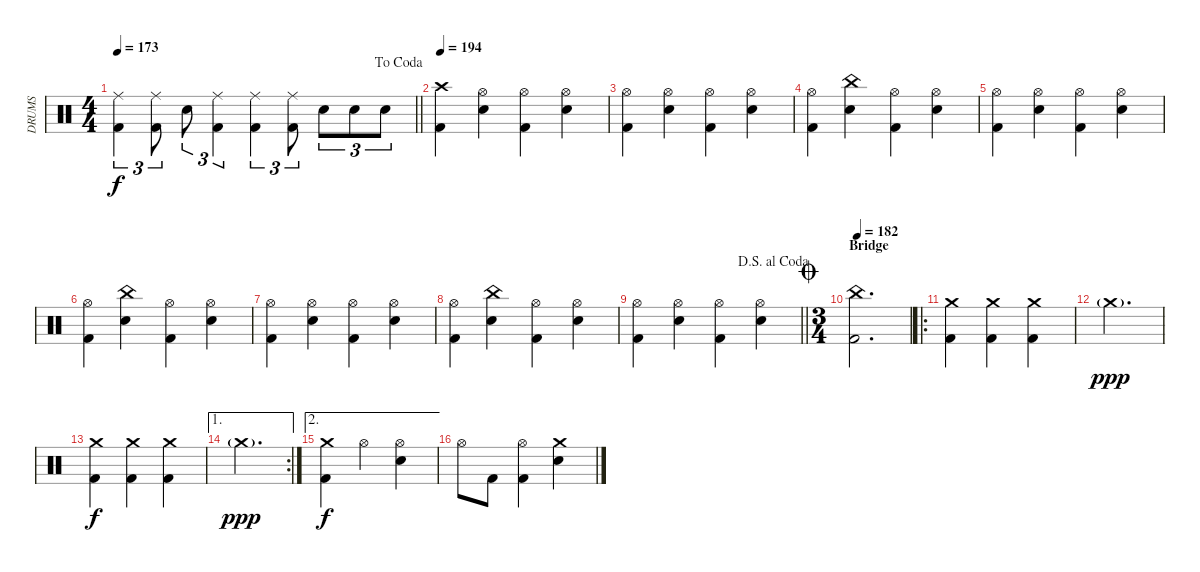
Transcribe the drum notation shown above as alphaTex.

\track ("DRUMS" "DRUMS") {instrument percussion}
\staff {score}
\articulation defaults
\ts (4 4)
\jump dacoda
\tempo 173
\clef neutral
\barLineRight lightlight
\ks c
("Ride (middle)" "Kick (hit) 2").4{tu (3 2) dy f} ("Ride (middle)" "Kick (hit) 2").8{tu (3 2)} "Snare (hit) 2".8{tu (3 2)} ("Ride (middle)" "Kick (hit) 2").4{tu (3 2)} ("Ride (middle)" "Kick (hit) 2").4{tu (3 2)} ("Ride (middle)" "Kick (hit) 2").8{tu (3 2)} "Snare (hit) 2".8{tu (3 2)} "Snare (hit) 2".8{tu (3 2)} "Snare (hit) 2".8{tu (3 2)} |
\tempo 194
("Crash high (hit)" "Kick (hit) 2").4 ("Hi-Hat (open)" "Snare (hit) 2").4 ("Hi-Hat (open)" "Kick (hit) 2").4 ("Hi-Hat (open)" "Snare (hit) 2").4 |
("Hi-Hat (open)" "Kick (hit) 2").4 ("Hi-Hat (open)" "Snare (hit) 2").4 ("Hi-Hat (open)" "Kick (hit) 2").4 ("Hi-Hat (open)" "Snare (hit) 2").4 |
("Hi-Hat (open)" "Kick (hit) 2").4 ("China (hit)" "Snare (hit) 2").4 ("Hi-Hat (open)" "Kick (hit) 2").4 ("Hi-Hat (open)" "Snare (hit) 2").4 |
("Hi-Hat (open)" "Kick (hit) 2").4 ("Hi-Hat (open)" "Snare (hit) 2").4 ("Hi-Hat (open)" "Kick (hit) 2").4 ("Hi-Hat (open)" "Snare (hit) 2").4 |
("Hi-Hat (open)" "Kick (hit) 2").4 ("China (hit)" "Snare (hit) 2").4 ("Hi-Hat (open)" "Kick (hit) 2").4 ("Hi-Hat (open)" "Snare (hit) 2").4 |
("Hi-Hat (open)" "Kick (hit) 2").4 ("Hi-Hat (open)" "Snare (hit) 2").4 ("Hi-Hat (open)" "Kick (hit) 2").4 ("Hi-Hat (open)" "Snare (hit) 2").4 |
("Hi-Hat (open)" "Kick (hit) 2").4 ("China (hit)" "Snare (hit) 2").4 ("Hi-Hat (open)" "Kick (hit) 2").4 ("Hi-Hat (open)" "Snare (hit) 2").4 |
\jump dalsegnoalcoda
\barLineRight lightlight
("Hi-Hat (open)" "Kick (hit) 2").4 ("Hi-Hat (open)" "Snare (hit) 2").4 ("Hi-Hat (open)" "Kick (hit) 2").4 ("Hi-Hat (open)" "Snare (hit) 2").4 |
\ts (3 4)
\section ("" "Bridge")
\jump coda
\tempo 182
("China (hit)" "Kick (hit) 2").2{d} |
\ro
("Crash medium (hit)" "Kick (hit) 2").4 ("Crash medium (hit)" "Kick (hit) 2").4 ("Crash medium (hit)" "Kick (hit) 2").4 |
"Crash medium (hit)"{g}.2{d dy ppp} |
("Crash medium (hit)" "Kick (hit) 2").4{dy f} ("Crash medium (hit)" "Kick (hit) 2").4 ("Crash medium (hit)" "Kick (hit) 2").4 |
\ae 1
\rc 2 "Crash medium (hit)"{g}.2{d dy ppp}
|
\ae 2
("Crash medium (hit)" "Kick (hit) 2").4{dy f} "Hi-Hat (open)".4 ("Hi-Hat (open)" "Snare (hit) 2").4 |
"Hi-Hat (open)".8 "Kick (hit) 2".8 ("Hi-Hat (open)" "Kick (hit) 2").4 ("Crash medium (hit)" "Snare (hit) 2").4
